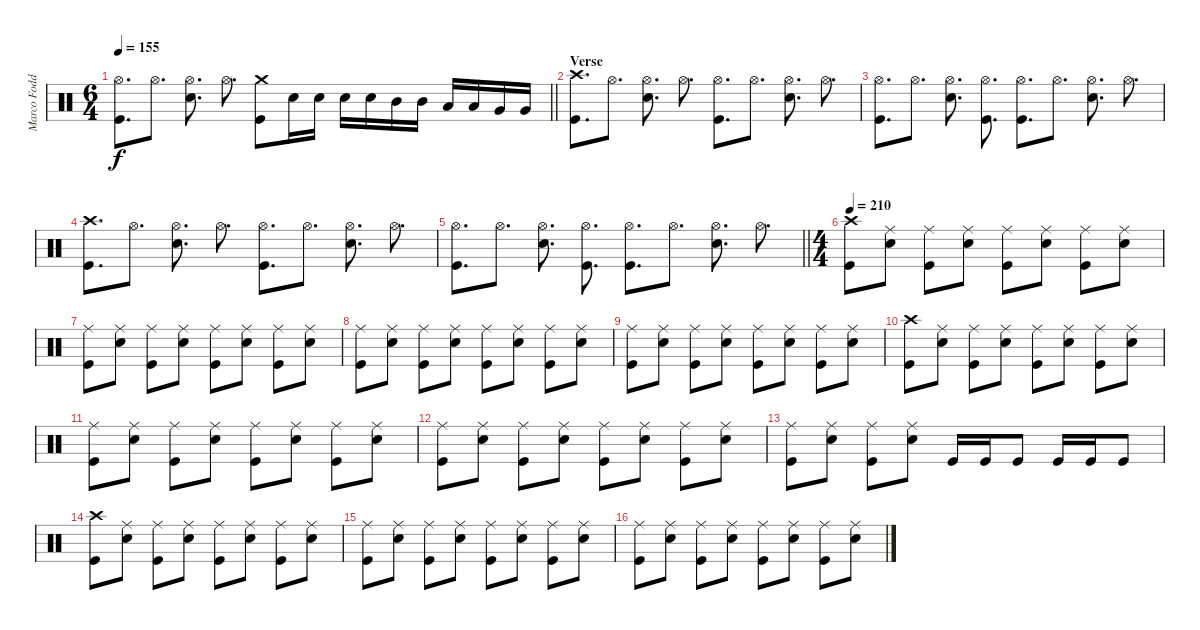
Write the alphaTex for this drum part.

\track ("Marco Foddis" "Marco Fodd") {instrument percussion}
\staff {score}
\articulation defaults
\ts (6 4)
\tempo 155
\clef neutral
\barLineRight lightlight
\ks c
("Hi-Hat (open)" "Kick (hit)").8{d dy f} "Hi-Hat (open)".8{d} ("Hi-Hat (open)" "Snare (hit) 2").8{d} "Hi-Hat (open)".8{d} ("Crash medium (hit)" "Kick (hit)").8 "Snare (hit) 2".16 "Snare (hit) 2".16 "Snare (hit) 2".16 "Snare (hit) 2".16 "Mid Tom (hit)".16 "Mid Tom (hit)".16 "Low Tom (hit)".16 "Low Tom (hit)".16 "Very Low Tom (hit)".16 "Very Low Tom (hit)".16 |
\section ("" "Verse")
("Crash high (hit)" "Kick (hit)").8{d} "Hi-Hat (open)".8{d} ("Hi-Hat (open)" "Snare (hit) 2").8{d} "Hi-Hat (open)".8{d} ("Hi-Hat (open)" "Kick (hit)").8{d} "Hi-Hat (open)".8{d} ("Hi-Hat (open)" "Snare (hit) 2").8{d} "Hi-Hat (open)".8{d} |
("Hi-Hat (open)" "Kick (hit)").8{d} "Hi-Hat (open)".8{d} ("Hi-Hat (open)" "Snare (hit) 2").8{d} ("Hi-Hat (open)" "Kick (hit)").8{d} ("Hi-Hat (open)" "Kick (hit)").8{d} "Hi-Hat (open)".8{d} ("Hi-Hat (open)" "Snare (hit) 2").8{d} "Hi-Hat (open)".8{d} |
("Crash high (hit)" "Kick (hit)").8{d} "Hi-Hat (open)".8{d} ("Hi-Hat (open)" "Snare (hit) 2").8{d} "Hi-Hat (open)".8{d} ("Hi-Hat (open)" "Kick (hit)").8{d} "Hi-Hat (open)".8{d} ("Hi-Hat (open)" "Snare (hit) 2").8{d} "Hi-Hat (open)".8{d} |
\barLineRight lightlight
("Hi-Hat (open)" "Kick (hit)").8{d} "Hi-Hat (open)".8{d} ("Hi-Hat (open)" "Snare (hit) 2").8{d} ("Hi-Hat (open)" "Kick (hit)").8{d} ("Hi-Hat (open)" "Kick (hit)").8{d} "Hi-Hat (open)".8{d} ("Hi-Hat (open)" "Snare (hit) 2").8{d} "Hi-Hat (open)".8{d} |
\ts (4 4)
\tempo 210
("Crash high (hit)" "Kick (hit)").8 ("Ride (middle)" "Snare (hit) 2").8 ("Ride (middle)" "Kick (hit)").8 ("Ride (middle)" "Snare (hit) 2").8 ("Ride (middle)" "Kick (hit)").8 ("Ride (middle)" "Snare (hit) 2").8 ("Ride (middle)" "Kick (hit)").8 ("Ride (middle)" "Snare (hit) 2").8 |
("Ride (middle)" "Kick (hit)").8 ("Ride (middle)" "Snare (hit) 2").8 ("Ride (middle)" "Kick (hit)").8 ("Ride (middle)" "Snare (hit) 2").8 ("Ride (middle)" "Kick (hit)").8 ("Ride (middle)" "Snare (hit) 2").8 ("Ride (middle)" "Kick (hit)").8 ("Ride (middle)" "Snare (hit) 2").8 |
("Ride (middle)" "Kick (hit)").8 ("Ride (middle)" "Snare (hit) 2").8 ("Ride (middle)" "Kick (hit)").8 ("Ride (middle)" "Snare (hit) 2").8 ("Ride (middle)" "Kick (hit)").8 ("Ride (middle)" "Snare (hit) 2").8 ("Ride (middle)" "Kick (hit)").8 ("Ride (middle)" "Snare (hit) 2").8 |
("Ride (middle)" "Kick (hit)").8 ("Ride (middle)" "Snare (hit) 2").8 ("Ride (middle)" "Kick (hit)").8 ("Ride (middle)" "Snare (hit) 2").8 ("Ride (middle)" "Kick (hit)").8 ("Ride (middle)" "Snare (hit) 2").8 ("Ride (middle)" "Kick (hit)").8 ("Ride (middle)" "Snare (hit) 2").8 |
("Crash high (hit)" "Kick (hit)").8 ("Ride (middle)" "Snare (hit) 2").8 ("Ride (middle)" "Kick (hit)").8 ("Ride (middle)" "Snare (hit) 2").8 ("Ride (middle)" "Kick (hit)").8 ("Ride (middle)" "Snare (hit) 2").8 ("Ride (middle)" "Kick (hit)").8 ("Ride (middle)" "Snare (hit) 2").8 |
("Ride (middle)" "Kick (hit)").8 ("Ride (middle)" "Snare (hit) 2").8 ("Ride (middle)" "Kick (hit)").8 ("Ride (middle)" "Snare (hit) 2").8 ("Ride (middle)" "Kick (hit)").8 ("Ride (middle)" "Snare (hit) 2").8 ("Ride (middle)" "Kick (hit)").8 ("Ride (middle)" "Snare (hit) 2").8 |
("Ride (middle)" "Kick (hit)").8 ("Ride (middle)" "Snare (hit) 2").8 ("Ride (middle)" "Kick (hit)").8 ("Ride (middle)" "Snare (hit) 2").8 ("Ride (middle)" "Kick (hit)").8 ("Ride (middle)" "Snare (hit) 2").8 ("Ride (middle)" "Kick (hit)").8 ("Ride (middle)" "Snare (hit) 2").8 |
("Ride (middle)" "Kick (hit)").8 ("Ride (middle)" "Snare (hit) 2").8 ("Ride (middle)" "Kick (hit)").8 ("Ride (middle)" "Snare (hit) 2").8 "Kick (hit)".16 "Kick (hit)".16 "Kick (hit)".8 "Kick (hit)".16 "Kick (hit)".16 "Kick (hit)".8 |
("Crash high (hit)" "Kick (hit)").8 ("Ride (middle)" "Snare (hit) 2").8 ("Ride (middle)" "Kick (hit)").8 ("Ride (middle)" "Snare (hit) 2").8 ("Ride (middle)" "Kick (hit)").8 ("Ride (middle)" "Snare (hit) 2").8 ("Ride (middle)" "Kick (hit)").8 ("Ride (middle)" "Snare (hit) 2").8 |
("Ride (middle)" "Kick (hit)").8 ("Ride (middle)" "Snare (hit) 2").8 ("Ride (middle)" "Kick (hit)").8 ("Ride (middle)" "Snare (hit) 2").8 ("Ride (middle)" "Kick (hit)").8 ("Ride (middle)" "Snare (hit) 2").8 ("Ride (middle)" "Kick (hit)").8 ("Ride (middle)" "Snare (hit) 2").8 |
("Ride (middle)" "Kick (hit)").8 ("Ride (middle)" "Snare (hit) 2").8 ("Ride (middle)" "Kick (hit)").8 ("Ride (middle)" "Snare (hit) 2").8 ("Ride (middle)" "Kick (hit)").8 ("Ride (middle)" "Snare (hit) 2").8 ("Ride (middle)" "Kick (hit)").8 ("Ride (middle)" "Snare (hit) 2").8
